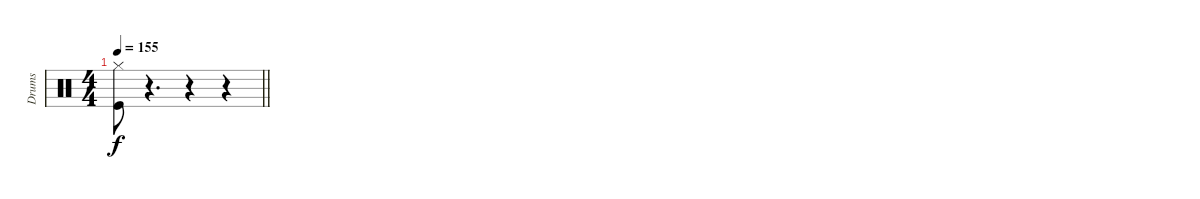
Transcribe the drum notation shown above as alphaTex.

\track ("Drums" "Drums") {instrument percussion}
\staff {score}
\articulation defaults
\ts (4 4)
\tempo 155
\clef neutral
\barLineRight lightlight
\ks c
("Hi-Hat (closed)" "Kick (hit)").8{dy f} r.4{d} r.4 r.4
